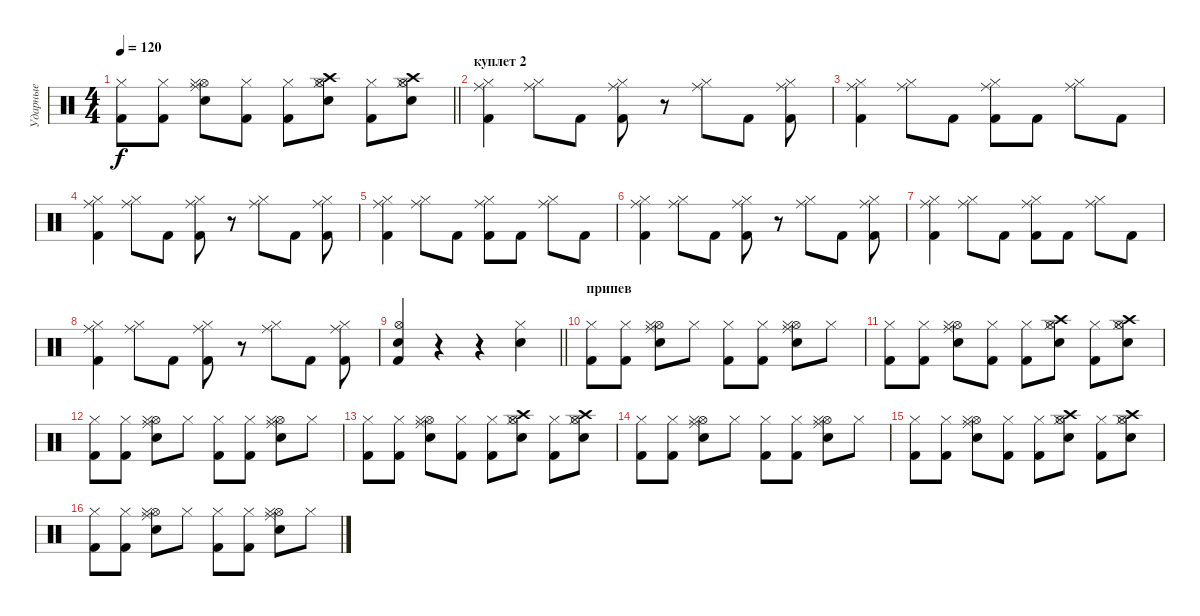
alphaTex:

\track ("Ударные" "Ударные") {instrument percussion}
\staff {score}
\articulation defaults
\ts (4 4)
\tempo 120
\clef neutral
\barLineRight lightlight
\ks c
("Kick (hit) 2" "Hi-Hat (closed)").8{dy f} ("Kick (hit) 2" "Hi-Hat (closed)").8 ("Ride (middle)" "Hi-Hat (open)" "Hi-Hat (closed)" "Snare (hit) 2").8 ("Kick (hit) 2" "Hi-Hat (closed)").8 ("Kick (hit) 2" "Hi-Hat (closed)").8 ("Crash high (hit)" "Hi-Hat (open)" "Hi-Hat (closed)" "Snare (hit) 2").8 ("Kick (hit) 2" "Hi-Hat (closed)").8 ("Crash high (hit)" "Hi-Hat (open)" "Hi-Hat (closed)" "Snare (hit) 2").8 |
\section ("" "куплет 2")
("Hi-Hat (closed)" "Ride (middle)" "Kick (hit) 2").4 ("Hi-Hat (closed)" "Ride (middle)").8 "Kick (hit) 2".8 ("Hi-Hat (closed)" "Ride (middle)" "Kick (hit) 2").8 r.8 ("Hi-Hat (closed)" "Ride (middle)").8 "Kick (hit) 2".8 ("Hi-Hat (closed)" "Ride (middle)" "Kick (hit) 2").8 |
("Hi-Hat (closed)" "Ride (middle)" "Kick (hit) 2").4 ("Hi-Hat (closed)" "Ride (middle)").8 "Kick (hit) 2".8 ("Hi-Hat (closed)" "Ride (middle)" "Kick (hit) 2").8 "Kick (hit) 2".8 ("Hi-Hat (closed)" "Ride (middle)").8 "Kick (hit) 2".8 |
("Hi-Hat (closed)" "Ride (middle)" "Kick (hit) 2").4 ("Hi-Hat (closed)" "Ride (middle)").8 "Kick (hit) 2".8 ("Hi-Hat (closed)" "Ride (middle)" "Kick (hit) 2").8 r.8 ("Hi-Hat (closed)" "Ride (middle)").8 "Kick (hit) 2".8 ("Hi-Hat (closed)" "Ride (middle)" "Kick (hit) 2").8 |
("Hi-Hat (closed)" "Ride (middle)" "Kick (hit) 2").4 ("Hi-Hat (closed)" "Ride (middle)").8 "Kick (hit) 2".8 ("Hi-Hat (closed)" "Ride (middle)" "Kick (hit) 2").8 "Kick (hit) 2".8 ("Hi-Hat (closed)" "Ride (middle)").8 "Kick (hit) 2".8 |
("Hi-Hat (closed)" "Ride (middle)" "Kick (hit) 2").4 ("Hi-Hat (closed)" "Ride (middle)").8 "Kick (hit) 2".8 ("Hi-Hat (closed)" "Ride (middle)" "Kick (hit) 2").8 r.8 ("Hi-Hat (closed)" "Ride (middle)").8 "Kick (hit) 2".8 ("Hi-Hat (closed)" "Ride (middle)" "Kick (hit) 2").8 |
("Hi-Hat (closed)" "Ride (middle)" "Kick (hit) 2").4 ("Hi-Hat (closed)" "Ride (middle)").8 "Kick (hit) 2".8 ("Hi-Hat (closed)" "Ride (middle)" "Kick (hit) 2").8 "Kick (hit) 2".8 ("Hi-Hat (closed)" "Ride (middle)").8 "Kick (hit) 2".8 |
("Hi-Hat (closed)" "Ride (middle)" "Kick (hit) 2").4 ("Hi-Hat (closed)" "Ride (middle)").8 "Kick (hit) 2".8 ("Hi-Hat (closed)" "Ride (middle)" "Kick (hit) 2").8 r.8 ("Hi-Hat (closed)" "Ride (middle)").8 "Kick (hit) 2".8 ("Hi-Hat (closed)" "Ride (middle)" "Kick (hit) 2").8 |
\barLineRight lightlight
("Hi-Hat (open)" "Kick (hit) 2" "Snare (hit) 2").4 r.4 r.4 ("Hi-Hat (closed)" "Snare (hit) 2").4 |
\section ("" "припев")
("Kick (hit) 2" "Hi-Hat (closed)").8 ("Kick (hit) 2" "Hi-Hat (closed)").8 ("Ride (middle)" "Hi-Hat (open)" "Hi-Hat (closed)" "Snare (hit) 2").8 "Hi-Hat (closed)".8 ("Kick (hit) 2" "Hi-Hat (closed)").8 ("Kick (hit) 2" "Hi-Hat (closed)").8 ("Ride (middle)" "Hi-Hat (open)" "Hi-Hat (closed)" "Snare (hit) 2").8 "Hi-Hat (closed)".8 |
("Kick (hit) 2" "Hi-Hat (closed)").8 ("Kick (hit) 2" "Hi-Hat (closed)").8 ("Ride (middle)" "Hi-Hat (open)" "Hi-Hat (closed)" "Snare (hit) 2").8 ("Kick (hit) 2" "Hi-Hat (closed)").8 ("Kick (hit) 2" "Hi-Hat (closed)").8 ("Crash high (hit)" "Hi-Hat (open)" "Hi-Hat (closed)" "Snare (hit) 2").8 ("Kick (hit) 2" "Hi-Hat (closed)").8 ("Crash high (hit)" "Hi-Hat (open)" "Hi-Hat (closed)" "Snare (hit) 2").8 |
("Kick (hit) 2" "Hi-Hat (closed)").8 ("Kick (hit) 2" "Hi-Hat (closed)").8 ("Ride (middle)" "Hi-Hat (open)" "Hi-Hat (closed)" "Snare (hit) 2").8 "Hi-Hat (closed)".8 ("Kick (hit) 2" "Hi-Hat (closed)").8 ("Kick (hit) 2" "Hi-Hat (closed)").8 ("Ride (middle)" "Hi-Hat (open)" "Hi-Hat (closed)" "Snare (hit) 2").8 "Hi-Hat (closed)".8 |
("Kick (hit) 2" "Hi-Hat (closed)").8 ("Kick (hit) 2" "Hi-Hat (closed)").8 ("Ride (middle)" "Hi-Hat (open)" "Hi-Hat (closed)" "Snare (hit) 2").8 ("Kick (hit) 2" "Hi-Hat (closed)").8 ("Kick (hit) 2" "Hi-Hat (closed)").8 ("Crash high (hit)" "Hi-Hat (open)" "Hi-Hat (closed)" "Snare (hit) 2").8 ("Kick (hit) 2" "Hi-Hat (closed)").8 ("Crash high (hit)" "Hi-Hat (open)" "Hi-Hat (closed)" "Snare (hit) 2").8 |
("Kick (hit) 2" "Hi-Hat (closed)").8 ("Kick (hit) 2" "Hi-Hat (closed)").8 ("Ride (middle)" "Hi-Hat (open)" "Hi-Hat (closed)" "Snare (hit) 2").8 "Hi-Hat (closed)".8 ("Kick (hit) 2" "Hi-Hat (closed)").8 ("Kick (hit) 2" "Hi-Hat (closed)").8 ("Ride (middle)" "Hi-Hat (open)" "Hi-Hat (closed)" "Snare (hit) 2").8 "Hi-Hat (closed)".8 |
("Kick (hit) 2" "Hi-Hat (closed)").8 ("Kick (hit) 2" "Hi-Hat (closed)").8 ("Ride (middle)" "Hi-Hat (open)" "Hi-Hat (closed)" "Snare (hit) 2").8 ("Kick (hit) 2" "Hi-Hat (closed)").8 ("Kick (hit) 2" "Hi-Hat (closed)").8 ("Crash high (hit)" "Hi-Hat (open)" "Hi-Hat (closed)" "Snare (hit) 2").8 ("Kick (hit) 2" "Hi-Hat (closed)").8 ("Crash high (hit)" "Hi-Hat (open)" "Hi-Hat (closed)" "Snare (hit) 2").8 |
("Kick (hit) 2" "Hi-Hat (closed)").8 ("Kick (hit) 2" "Hi-Hat (closed)").8 ("Ride (middle)" "Hi-Hat (open)" "Hi-Hat (closed)" "Snare (hit) 2").8 "Hi-Hat (closed)".8 ("Kick (hit) 2" "Hi-Hat (closed)").8 ("Kick (hit) 2" "Hi-Hat (closed)").8 ("Ride (middle)" "Hi-Hat (open)" "Hi-Hat (closed)" "Snare (hit) 2").8 "Hi-Hat (closed)".8
